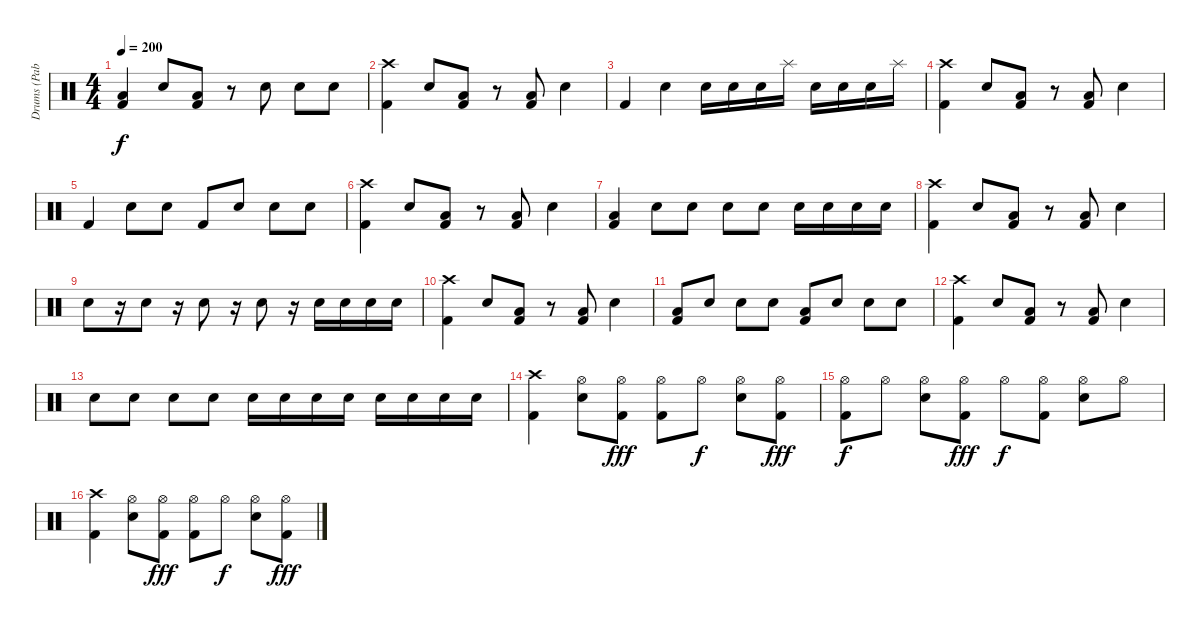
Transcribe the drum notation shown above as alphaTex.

\track ("Drums (Pablo)" "Drums (Pab") {instrument percussion}
\staff {score}
\articulation defaults
\ts (4 4)
\tempo 200
\clef neutral
\ks c
("Kick (hit) 2" "Low Tom (hit)").4{dy f} "Electric Snare (hit)".8 ("Low Tom (hit)" "Kick (hit) 2").8 r.8 "Electric Snare (hit)".8 "Electric Snare (hit)".8 "Electric Snare (hit)".8 |
("Crash high (hit)" "Kick (hit) 2").4 "Electric Snare (hit)".8 ("Low Tom (hit)" "Kick (hit) 2").8 r.8 ("Low Tom (hit)" "Kick (hit) 2").8 "Electric Snare (hit)".4 |
"Kick (hit) 2".4 "Electric Snare (hit)".4 "Electric Snare (hit)".16 "Electric Snare (hit)".16 "Electric Snare (hit)".16 "Splash (hit)".16 "Electric Snare (hit)".16 "Electric Snare (hit)".16 "Electric Snare (hit)".16 "Splash (hit)".16 |
("Crash high (hit)" "Kick (hit) 2").4 "Electric Snare (hit)".8 ("Low Tom (hit)" "Kick (hit) 2").8 r.8 ("Low Tom (hit)" "Kick (hit) 2").8 "Electric Snare (hit)".4 |
"Kick (hit) 2".4 "Electric Snare (hit)".8 "Electric Snare (hit)".8 "Kick (hit) 2".8 "Electric Snare (hit)".8 "Electric Snare (hit)".8 "Electric Snare (hit)".8 |
("Crash high (hit)" "Kick (hit) 2").4 "Electric Snare (hit)".8 ("Low Tom (hit)" "Kick (hit) 2").8 r.8 ("Low Tom (hit)" "Kick (hit) 2").8 "Electric Snare (hit)".4 |
("Low Tom (hit)" "Kick (hit) 2").4 "Electric Snare (hit)".8 "Electric Snare (hit)".8 "Electric Snare (hit)".8 "Electric Snare (hit)".8 "Electric Snare (hit)".16 "Electric Snare (hit)".16 "Electric Snare (hit)".16 "Electric Snare (hit)".16 |
("Crash high (hit)" "Kick (hit) 2").4 "Electric Snare (hit)".8 ("Low Tom (hit)" "Kick (hit) 2").8 r.8 ("Low Tom (hit)" "Kick (hit) 2").8 "Electric Snare (hit)".4 |
"Electric Snare (hit)".8 r.16 "Electric Snare (hit)".8 r.16 "Electric Snare (hit)".8 r.16 "Electric Snare (hit)".8 r.16 "Electric Snare (hit)".16 "Electric Snare (hit)".16 "Electric Snare (hit)".16 "Electric Snare (hit)".16 |
("Crash high (hit)" "Kick (hit) 2").4 "Electric Snare (hit)".8 ("Low Tom (hit)" "Kick (hit) 2").8 r.8 ("Low Tom (hit)" "Kick (hit) 2").8 "Electric Snare (hit)".4 |
("Low Tom (hit)" "Kick (hit) 2").8 "Electric Snare (hit)".8 "Electric Snare (hit)".8 "Electric Snare (hit)".8 ("Low Tom (hit)" "Kick (hit) 2").8 "Electric Snare (hit)".8 "Electric Snare (hit)".8 "Electric Snare (hit)".8 |
("Crash high (hit)" "Kick (hit) 2").4 "Electric Snare (hit)".8 ("Low Tom (hit)" "Kick (hit) 2").8 r.8 ("Low Tom (hit)" "Kick (hit) 2").8 "Electric Snare (hit)".4 |
"Electric Snare (hit)".8 "Electric Snare (hit)".8 "Electric Snare (hit)".8 "Electric Snare (hit)".8 "Electric Snare (hit)".16 "Electric Snare (hit)".16 "Electric Snare (hit)".16 "Electric Snare (hit)".16 "Electric Snare (hit)".16 "Electric Snare (hit)".16 "Electric Snare (hit)".16 "Electric Snare (hit)".16 |
("Crash high (hit)" "Kick (hit) 2").4 ("Hi-Hat (open)" "Electric Snare (hit)").8 ("Hi-Hat (open)" "Kick (hit) 2").8{dy fff} ("Hi-Hat (open)" "Kick (hit) 2").8 "Hi-Hat (open)".8{dy f} ("Hi-Hat (open)" "Electric Snare (hit)").8 ("Hi-Hat (open)" "Kick (hit) 2").8{dy fff} |
("Hi-Hat (open)" "Kick (hit) 2").8{dy f} "Hi-Hat (open)".8 ("Hi-Hat (open)" "Electric Snare (hit)").8 ("Hi-Hat (open)" "Kick (hit) 2").8{dy fff} "Hi-Hat (open)".8{dy f} ("Hi-Hat (open)" "Kick (hit) 2").8 ("Hi-Hat (open)" "Electric Snare (hit)").8 "Hi-Hat (open)".8 |
("Crash high (hit)" "Kick (hit) 2").4 ("Hi-Hat (open)" "Electric Snare (hit)").8 ("Hi-Hat (open)" "Kick (hit) 2").8{dy fff} ("Hi-Hat (open)" "Kick (hit) 2").8 "Hi-Hat (open)".8{dy f} ("Hi-Hat (open)" "Electric Snare (hit)").8 ("Hi-Hat (open)" "Kick (hit) 2").8{dy fff}
